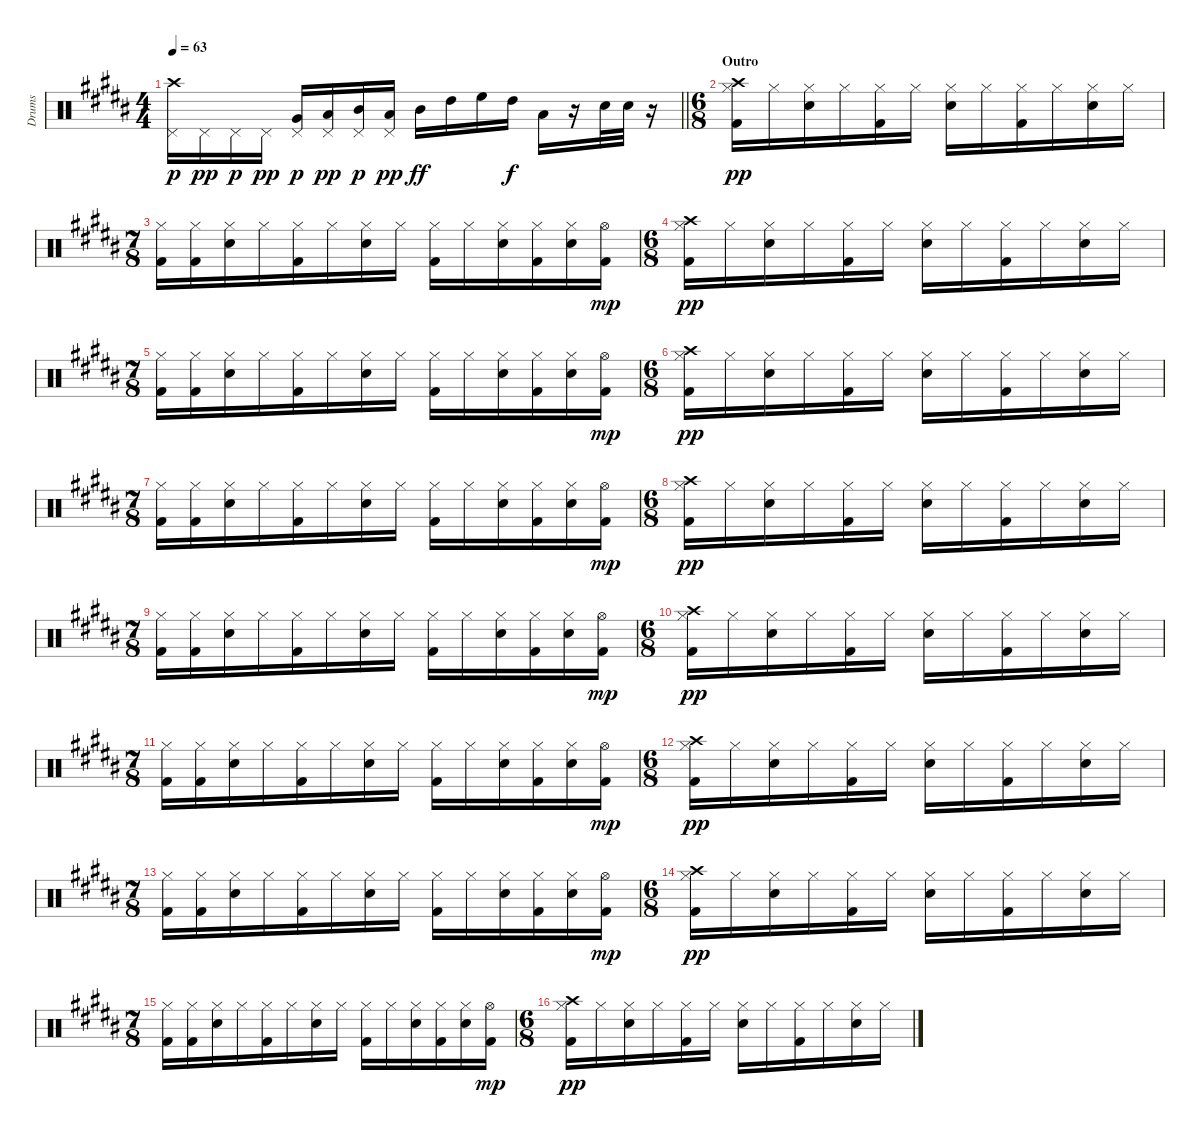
\track ("Drums" "Drums") {instrument percussion}
\staff {score}
\articulation defaults
\ts (4 4)
\tempo 63
\clef neutral
\barLineRight lightlight
\ks b
("Crash high (hit)" "Pedal Hi-Hat (hit)").16{dy p} "Pedal Hi-Hat (hit)".16{dy pp} "Pedal Hi-Hat (hit)".16{dy p} "Pedal Hi-Hat (hit)".16{dy pp} ("Very Low Tom (hit)" "Pedal Hi-Hat (hit)").16{dy p} ("Low Tom (hit)" "Pedal Hi-Hat (hit)").16{dy pp} ("Mid Tom (hit)" "Pedal Hi-Hat (hit)").16{dy p} ("Low Tom (hit)" "Pedal Hi-Hat (hit)").16{dy pp} "Mid Tom (hit)".16{dy ff} "High Tom (hit)".16 "High Floor Tom (hit)".16 "High Tom (hit)".16{dy f} "Low Tom (hit)".16 r.16 "Snare (hit) 2".32 "Snare (hit) 2".32 r.16 |
\ts (6 8)
\section ("" "Outro")
("Crash high (hit)" "Hi-Hat (closed)" "Kick (hit) 2").16{dy pp} "Hi-Hat (closed)".16 ("Snare (hit) 2" "Hi-Hat (closed)").16 "Hi-Hat (closed)".16 ("Hi-Hat (closed)" "Kick (hit) 2").16 "Hi-Hat (closed)".16 ("Snare (hit) 2" "Hi-Hat (closed)").16 "Hi-Hat (closed)".16 ("Hi-Hat (closed)" "Kick (hit) 2").16 "Hi-Hat (closed)".16 ("Snare (hit) 2" "Hi-Hat (closed)").16 "Hi-Hat (closed)".16 |
\ts (7 8)
("Hi-Hat (closed)" "Kick (hit) 2").16 ("Hi-Hat (closed)" "Kick (hit) 2").16 ("Snare (hit) 2" "Hi-Hat (closed)").16 "Hi-Hat (closed)".16 ("Hi-Hat (closed)" "Kick (hit) 2").16 "Hi-Hat (closed)".16 ("Snare (hit) 2" "Hi-Hat (closed)").16 "Hi-Hat (closed)".16 ("Hi-Hat (closed)" "Kick (hit) 2").16 "Hi-Hat (closed)".16 ("Snare (hit) 2" "Hi-Hat (closed)").16 ("Hi-Hat (closed)" "Kick (hit) 2").16 ("Snare (hit) 2" "Hi-Hat (closed)").16 ("Hi-Hat (open)" "Kick (hit) 2").16{dy mp} |
\ts (6 8)
("Crash high (hit)" "Hi-Hat (closed)" "Kick (hit) 2").16{dy pp} "Hi-Hat (closed)".16 ("Snare (hit) 2" "Hi-Hat (closed)").16 "Hi-Hat (closed)".16 ("Hi-Hat (closed)" "Kick (hit) 2").16 "Hi-Hat (closed)".16 ("Snare (hit) 2" "Hi-Hat (closed)").16 "Hi-Hat (closed)".16 ("Hi-Hat (closed)" "Kick (hit) 2").16 "Hi-Hat (closed)".16 ("Snare (hit) 2" "Hi-Hat (closed)").16 "Hi-Hat (closed)".16 |
\ts (7 8)
("Hi-Hat (closed)" "Kick (hit) 2").16 ("Hi-Hat (closed)" "Kick (hit) 2").16 ("Snare (hit) 2" "Hi-Hat (closed)").16 "Hi-Hat (closed)".16 ("Hi-Hat (closed)" "Kick (hit) 2").16 "Hi-Hat (closed)".16 ("Snare (hit) 2" "Hi-Hat (closed)").16 "Hi-Hat (closed)".16 ("Hi-Hat (closed)" "Kick (hit) 2").16 "Hi-Hat (closed)".16 ("Snare (hit) 2" "Hi-Hat (closed)").16 ("Hi-Hat (closed)" "Kick (hit) 2").16 ("Snare (hit) 2" "Hi-Hat (closed)").16 ("Hi-Hat (open)" "Kick (hit) 2").16{dy mp} |
\ts (6 8)
("Crash high (hit)" "Hi-Hat (closed)" "Kick (hit) 2").16{dy pp} "Hi-Hat (closed)".16 ("Snare (hit) 2" "Hi-Hat (closed)").16 "Hi-Hat (closed)".16 ("Hi-Hat (closed)" "Kick (hit) 2").16 "Hi-Hat (closed)".16 ("Snare (hit) 2" "Hi-Hat (closed)").16 "Hi-Hat (closed)".16 ("Hi-Hat (closed)" "Kick (hit) 2").16 "Hi-Hat (closed)".16 ("Snare (hit) 2" "Hi-Hat (closed)").16 "Hi-Hat (closed)".16 |
\ts (7 8)
("Hi-Hat (closed)" "Kick (hit) 2").16 ("Hi-Hat (closed)" "Kick (hit) 2").16 ("Snare (hit) 2" "Hi-Hat (closed)").16 "Hi-Hat (closed)".16 ("Hi-Hat (closed)" "Kick (hit) 2").16 "Hi-Hat (closed)".16 ("Snare (hit) 2" "Hi-Hat (closed)").16 "Hi-Hat (closed)".16 ("Hi-Hat (closed)" "Kick (hit) 2").16 "Hi-Hat (closed)".16 ("Snare (hit) 2" "Hi-Hat (closed)").16 ("Hi-Hat (closed)" "Kick (hit) 2").16 ("Snare (hit) 2" "Hi-Hat (closed)").16 ("Hi-Hat (open)" "Kick (hit) 2").16{dy mp} |
\ts (6 8)
("Crash high (hit)" "Hi-Hat (closed)" "Kick (hit) 2").16{dy pp} "Hi-Hat (closed)".16 ("Snare (hit) 2" "Hi-Hat (closed)").16 "Hi-Hat (closed)".16 ("Hi-Hat (closed)" "Kick (hit) 2").16 "Hi-Hat (closed)".16 ("Snare (hit) 2" "Hi-Hat (closed)").16 "Hi-Hat (closed)".16 ("Hi-Hat (closed)" "Kick (hit) 2").16 "Hi-Hat (closed)".16 ("Snare (hit) 2" "Hi-Hat (closed)").16 "Hi-Hat (closed)".16 |
\ts (7 8)
("Hi-Hat (closed)" "Kick (hit) 2").16 ("Hi-Hat (closed)" "Kick (hit) 2").16 ("Snare (hit) 2" "Hi-Hat (closed)").16 "Hi-Hat (closed)".16 ("Hi-Hat (closed)" "Kick (hit) 2").16 "Hi-Hat (closed)".16 ("Snare (hit) 2" "Hi-Hat (closed)").16 "Hi-Hat (closed)".16 ("Hi-Hat (closed)" "Kick (hit) 2").16 "Hi-Hat (closed)".16 ("Snare (hit) 2" "Hi-Hat (closed)").16 ("Hi-Hat (closed)" "Kick (hit) 2").16 ("Snare (hit) 2" "Hi-Hat (closed)").16 ("Hi-Hat (open)" "Kick (hit) 2").16{dy mp} |
\ts (6 8)
("Crash high (hit)" "Hi-Hat (closed)" "Kick (hit) 2").16{dy pp volume 4} "Hi-Hat (closed)".16 ("Snare (hit) 2" "Hi-Hat (closed)").16 "Hi-Hat (closed)".16 ("Hi-Hat (closed)" "Kick (hit) 2").16 "Hi-Hat (closed)".16 ("Snare (hit) 2" "Hi-Hat (closed)").16 "Hi-Hat (closed)".16 ("Hi-Hat (closed)" "Kick (hit) 2").16 "Hi-Hat (closed)".16 ("Snare (hit) 2" "Hi-Hat (closed)").16 "Hi-Hat (closed)".16 |
\ts (7 8)
("Hi-Hat (closed)" "Kick (hit) 2").16 ("Hi-Hat (closed)" "Kick (hit) 2").16 ("Snare (hit) 2" "Hi-Hat (closed)").16 "Hi-Hat (closed)".16 ("Hi-Hat (closed)" "Kick (hit) 2").16 "Hi-Hat (closed)".16 ("Snare (hit) 2" "Hi-Hat (closed)").16 "Hi-Hat (closed)".16 ("Hi-Hat (closed)" "Kick (hit) 2").16 "Hi-Hat (closed)".16 ("Snare (hit) 2" "Hi-Hat (closed)").16 ("Hi-Hat (closed)" "Kick (hit) 2").16 ("Snare (hit) 2" "Hi-Hat (closed)").16 ("Hi-Hat (open)" "Kick (hit) 2").16{dy mp} |
\ts (6 8)
("Crash high (hit)" "Hi-Hat (closed)" "Kick (hit) 2").16{dy pp} "Hi-Hat (closed)".16 ("Snare (hit) 2" "Hi-Hat (closed)").16 "Hi-Hat (closed)".16 ("Hi-Hat (closed)" "Kick (hit) 2").16 "Hi-Hat (closed)".16 ("Snare (hit) 2" "Hi-Hat (closed)").16 "Hi-Hat (closed)".16 ("Hi-Hat (closed)" "Kick (hit) 2").16 "Hi-Hat (closed)".16 ("Snare (hit) 2" "Hi-Hat (closed)").16 "Hi-Hat (closed)".16 |
\ts (7 8)
("Hi-Hat (closed)" "Kick (hit) 2").16 ("Hi-Hat (closed)" "Kick (hit) 2").16 ("Snare (hit) 2" "Hi-Hat (closed)").16 "Hi-Hat (closed)".16 ("Hi-Hat (closed)" "Kick (hit) 2").16 "Hi-Hat (closed)".16 ("Snare (hit) 2" "Hi-Hat (closed)").16 "Hi-Hat (closed)".16 ("Hi-Hat (closed)" "Kick (hit) 2").16 "Hi-Hat (closed)".16 ("Snare (hit) 2" "Hi-Hat (closed)").16 ("Hi-Hat (closed)" "Kick (hit) 2").16 ("Snare (hit) 2" "Hi-Hat (closed)").16 ("Hi-Hat (open)" "Kick (hit) 2").16{dy mp} |
\ts (6 8)
("Crash high (hit)" "Hi-Hat (closed)" "Kick (hit) 2").16{dy pp} "Hi-Hat (closed)".16 ("Snare (hit) 2" "Hi-Hat (closed)").16 "Hi-Hat (closed)".16 ("Hi-Hat (closed)" "Kick (hit) 2").16 "Hi-Hat (closed)".16 ("Snare (hit) 2" "Hi-Hat (closed)").16 "Hi-Hat (closed)".16 ("Hi-Hat (closed)" "Kick (hit) 2").16 "Hi-Hat (closed)".16 ("Snare (hit) 2" "Hi-Hat (closed)").16 "Hi-Hat (closed)".16 |
\ts (7 8)
("Hi-Hat (closed)" "Kick (hit) 2").16 ("Hi-Hat (closed)" "Kick (hit) 2").16 ("Snare (hit) 2" "Hi-Hat (closed)").16 "Hi-Hat (closed)".16 ("Hi-Hat (closed)" "Kick (hit) 2").16 "Hi-Hat (closed)".16 ("Snare (hit) 2" "Hi-Hat (closed)").16 "Hi-Hat (closed)".16 ("Hi-Hat (closed)" "Kick (hit) 2").16 "Hi-Hat (closed)".16 ("Snare (hit) 2" "Hi-Hat (closed)").16 ("Hi-Hat (closed)" "Kick (hit) 2").16 ("Snare (hit) 2" "Hi-Hat (closed)").16 ("Hi-Hat (open)" "Kick (hit) 2").16{dy mp} |
\ts (6 8)
("Crash high (hit)" "Hi-Hat (closed)" "Kick (hit) 2").16{dy pp} "Hi-Hat (closed)".16 ("Snare (hit) 2" "Hi-Hat (closed)").16 "Hi-Hat (closed)".16 ("Hi-Hat (closed)" "Kick (hit) 2").16 "Hi-Hat (closed)".16 ("Snare (hit) 2" "Hi-Hat (closed)").16 "Hi-Hat (closed)".16 ("Hi-Hat (closed)" "Kick (hit) 2").16 "Hi-Hat (closed)".16 ("Snare (hit) 2" "Hi-Hat (closed)").16 "Hi-Hat (closed)".16
